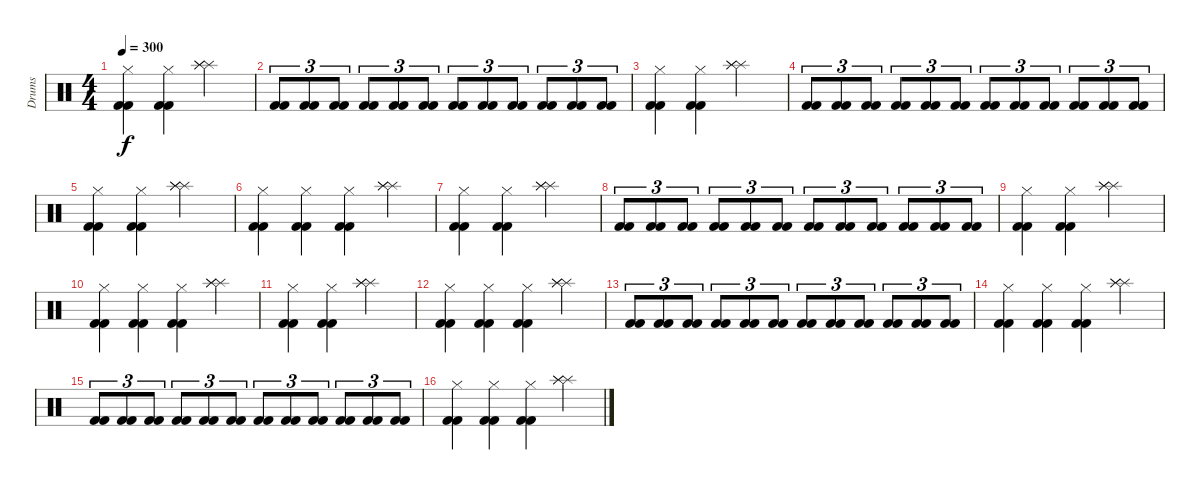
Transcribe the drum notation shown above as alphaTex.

\track ("Drums" "Drums") {instrument percussion}
\staff {score}
\articulation defaults
\ts (4 4)
\tempo 300
\clef neutral
\ks c
("Hi-Hat (closed)" "Kick (hit) 2" "Kick (hit) 2").4{dy f} ("Hi-Hat (closed)" "Kick (hit) 2" "Kick (hit) 2").4 ("Splash (hit)" "Splash (hit)" "Splash (hit)").2 |
("Kick (hit) 2" "Kick (hit) 2").8{tu (3 2)} ("Kick (hit) 2" "Kick (hit) 2").8{tu (3 2)} ("Kick (hit) 2" "Kick (hit) 2").8{tu (3 2)} ("Kick (hit) 2" "Kick (hit) 2").8{tu (3 2)} ("Kick (hit) 2" "Kick (hit) 2").8{tu (3 2)} ("Kick (hit) 2" "Kick (hit) 2").8{tu (3 2)} ("Kick (hit) 2" "Kick (hit) 2").8{tu (3 2)} ("Kick (hit) 2" "Kick (hit) 2").8{tu (3 2)} ("Kick (hit) 2" "Kick (hit) 2").8{tu (3 2)} ("Kick (hit) 2" "Kick (hit) 2").8{tu (3 2)} ("Kick (hit) 2" "Kick (hit) 2").8{tu (3 2)} ("Kick (hit) 2" "Kick (hit) 2").8{tu (3 2)} |
("Hi-Hat (closed)" "Kick (hit) 2" "Kick (hit) 2").4 ("Hi-Hat (closed)" "Kick (hit) 2" "Kick (hit) 2").4 ("Splash (hit)" "Splash (hit)" "Splash (hit)").2 |
("Kick (hit) 2" "Kick (hit) 2").8{tu (3 2)} ("Kick (hit) 2" "Kick (hit) 2").8{tu (3 2)} ("Kick (hit) 2" "Kick (hit) 2").8{tu (3 2)} ("Kick (hit) 2" "Kick (hit) 2").8{tu (3 2)} ("Kick (hit) 2" "Kick (hit) 2").8{tu (3 2)} ("Kick (hit) 2" "Kick (hit) 2").8{tu (3 2)} ("Kick (hit) 2" "Kick (hit) 2").8{tu (3 2)} ("Kick (hit) 2" "Kick (hit) 2").8{tu (3 2)} ("Kick (hit) 2" "Kick (hit) 2").8{tu (3 2)} ("Kick (hit) 2" "Kick (hit) 2").8{tu (3 2)} ("Kick (hit) 2" "Kick (hit) 2").8{tu (3 2)} ("Kick (hit) 2" "Kick (hit) 2").8{tu (3 2)} |
("Hi-Hat (closed)" "Kick (hit) 2" "Kick (hit) 2").4 ("Hi-Hat (closed)" "Kick (hit) 2" "Kick (hit) 2").4 ("Splash (hit)" "Splash (hit)" "Splash (hit)").2 |
("Hi-Hat (closed)" "Kick (hit) 2" "Kick (hit) 2").4 ("Hi-Hat (closed)" "Kick (hit) 2" "Kick (hit) 2").4 ("Hi-Hat (closed)" "Kick (hit) 2" "Kick (hit) 2").4 ("Splash (hit)" "Splash (hit)" "Splash (hit)").4 |
("Hi-Hat (closed)" "Kick (hit) 2" "Kick (hit) 2").4 ("Hi-Hat (closed)" "Kick (hit) 2" "Kick (hit) 2").4 ("Splash (hit)" "Splash (hit)" "Splash (hit)").2 |
("Kick (hit) 2" "Kick (hit) 2").8{tu (3 2)} ("Kick (hit) 2" "Kick (hit) 2").8{tu (3 2)} ("Kick (hit) 2" "Kick (hit) 2").8{tu (3 2)} ("Kick (hit) 2" "Kick (hit) 2").8{tu (3 2)} ("Kick (hit) 2" "Kick (hit) 2").8{tu (3 2)} ("Kick (hit) 2" "Kick (hit) 2").8{tu (3 2)} ("Kick (hit) 2" "Kick (hit) 2").8{tu (3 2)} ("Kick (hit) 2" "Kick (hit) 2").8{tu (3 2)} ("Kick (hit) 2" "Kick (hit) 2").8{tu (3 2)} ("Kick (hit) 2" "Kick (hit) 2").8{tu (3 2)} ("Kick (hit) 2" "Kick (hit) 2").8{tu (3 2)} ("Kick (hit) 2" "Kick (hit) 2").8{tu (3 2)} |
("Hi-Hat (closed)" "Kick (hit) 2" "Kick (hit) 2").4 ("Hi-Hat (closed)" "Kick (hit) 2" "Kick (hit) 2").4 ("Splash (hit)" "Splash (hit)" "Splash (hit)").2 |
("Hi-Hat (closed)" "Kick (hit) 2" "Kick (hit) 2").4 ("Hi-Hat (closed)" "Kick (hit) 2" "Kick (hit) 2").4 ("Hi-Hat (closed)" "Kick (hit) 2" "Kick (hit) 2").4 ("Splash (hit)" "Splash (hit)" "Splash (hit)").4 |
("Hi-Hat (closed)" "Kick (hit) 2" "Kick (hit) 2").4 ("Hi-Hat (closed)" "Kick (hit) 2" "Kick (hit) 2").4 ("Splash (hit)" "Splash (hit)" "Splash (hit)").2 |
("Hi-Hat (closed)" "Kick (hit) 2" "Kick (hit) 2").4 ("Hi-Hat (closed)" "Kick (hit) 2" "Kick (hit) 2").4 ("Hi-Hat (closed)" "Kick (hit) 2" "Kick (hit) 2").4 ("Splash (hit)" "Splash (hit)" "Splash (hit)").4 |
("Kick (hit) 2" "Kick (hit) 2").8{tu (3 2)} ("Kick (hit) 2" "Kick (hit) 2").8{tu (3 2)} ("Kick (hit) 2" "Kick (hit) 2").8{tu (3 2)} ("Kick (hit) 2" "Kick (hit) 2").8{tu (3 2)} ("Kick (hit) 2" "Kick (hit) 2").8{tu (3 2)} ("Kick (hit) 2" "Kick (hit) 2").8{tu (3 2)} ("Kick (hit) 2" "Kick (hit) 2").8{tu (3 2)} ("Kick (hit) 2" "Kick (hit) 2").8{tu (3 2)} ("Kick (hit) 2" "Kick (hit) 2").8{tu (3 2)} ("Kick (hit) 2" "Kick (hit) 2").8{tu (3 2)} ("Kick (hit) 2" "Kick (hit) 2").8{tu (3 2)} ("Kick (hit) 2" "Kick (hit) 2").8{tu (3 2)} |
("Hi-Hat (closed)" "Kick (hit) 2" "Kick (hit) 2").4 ("Hi-Hat (closed)" "Kick (hit) 2" "Kick (hit) 2").4 ("Hi-Hat (closed)" "Kick (hit) 2" "Kick (hit) 2").4 ("Splash (hit)" "Splash (hit)" "Splash (hit)").4 |
("Kick (hit) 2" "Kick (hit) 2").8{tu (3 2)} ("Kick (hit) 2" "Kick (hit) 2").8{tu (3 2)} ("Kick (hit) 2" "Kick (hit) 2").8{tu (3 2)} ("Kick (hit) 2" "Kick (hit) 2").8{tu (3 2)} ("Kick (hit) 2" "Kick (hit) 2").8{tu (3 2)} ("Kick (hit) 2" "Kick (hit) 2").8{tu (3 2)} ("Kick (hit) 2" "Kick (hit) 2").8{tu (3 2)} ("Kick (hit) 2" "Kick (hit) 2").8{tu (3 2)} ("Kick (hit) 2" "Kick (hit) 2").8{tu (3 2)} ("Kick (hit) 2" "Kick (hit) 2").8{tu (3 2)} ("Kick (hit) 2" "Kick (hit) 2").8{tu (3 2)} ("Kick (hit) 2" "Kick (hit) 2").8{tu (3 2)} |
("Hi-Hat (closed)" "Kick (hit) 2" "Kick (hit) 2").4 ("Hi-Hat (closed)" "Kick (hit) 2" "Kick (hit) 2").4 ("Hi-Hat (closed)" "Kick (hit) 2" "Kick (hit) 2").4 ("Splash (hit)" "Splash (hit)" "Splash (hit)").4
